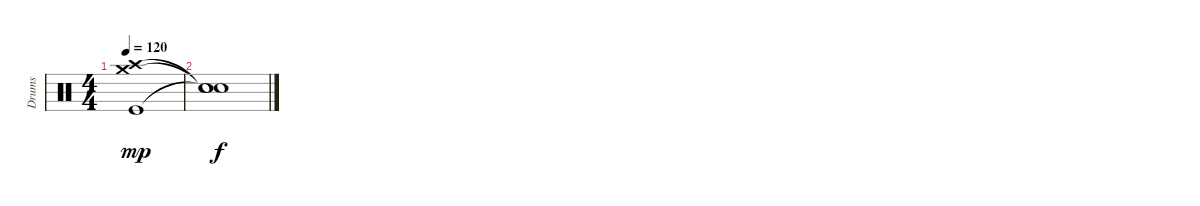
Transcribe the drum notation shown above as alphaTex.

\track ("Drums" "Drums") {instrument percussion}
\staff {score}
\articulation defaults
\ts (4 4)
\tempo 120
\clef neutral
\ks c
("Crash medium (hit)" "Crash high (hit)" "Kick (hit)").1{dy mp} |
("Snare (hit)"{t} "Snare (hit)"{t} "Snare (hit)"{t}).1{dy f}
